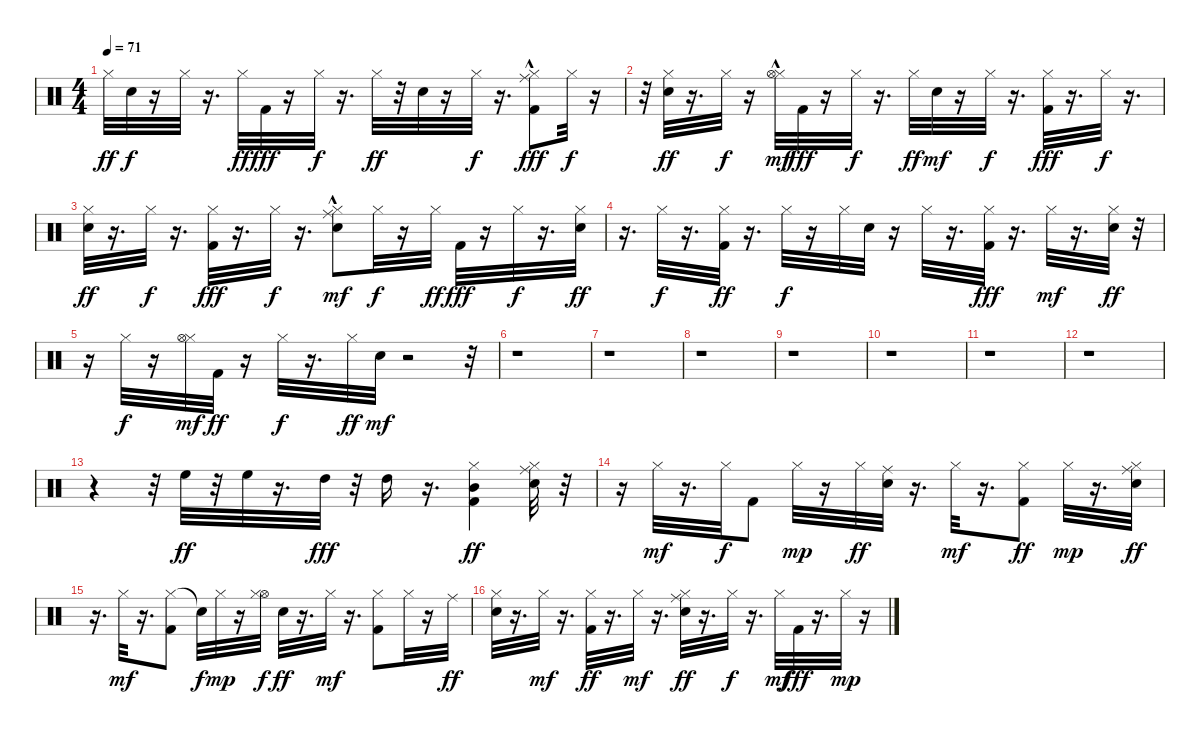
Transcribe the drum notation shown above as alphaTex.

\track "" {instrument percussion}
\staff {score}
\articulation defaults
\ts (4 4)
\tempo 71
\clef neutral
\ks c "Hi-Hat (closed)".32{dy ff} "Snare (hit) 2".32{dy f}
r.16 "Hi-Hat (closed)".32 r.16{d} "Hi-Hat (closed)".32{dy ff} "Kick (hit) 2".32{dy fff} r.16 "Hi-Hat (closed)".32{dy f} r.16{d} "Hi-Hat (closed)".32{dy ff} r.32 "Snare (hit) 2".32 r.16 "Hi-Hat (closed)".32{dy f} r.16{d} ("Hi-Hat (closed)" "Ride (middle)"{hac} "Kick (hit) 2").8{dy fff} "Hi-Hat (closed)".32{dy f} r.16 |
r.32 ("Hi-Hat (closed)" "Snare (hit) 2").32{dy ff} r.16{d} "Hi-Hat (closed)".32{dy f} r.16 ("Hi-Hat (closed)" "Hi-Hat (open)"{hac}).32{dy mf} "Kick (hit) 2".32{dy fff} r.16 "Hi-Hat (closed)".32{dy f} r.16{d} "Hi-Hat (closed)".32{dy ff} "Snare (hit) 2".32{dy mf} r.16 "Hi-Hat (closed)".32{dy f} r.16{d} ("Hi-Hat (closed)" "Kick (hit) 2").32{dy fff} r.16{d} "Hi-Hat (closed)".32{dy f} r.16{d} |
("Hi-Hat (closed)" "Snare (hit) 2").32{dy ff} r.16{d} "Hi-Hat (closed)".32{dy f} r.16{d} ("Hi-Hat (closed)" "Kick (hit) 2").32{dy fff} r.16{d} "Hi-Hat (closed)".32{dy f} r.16{d} ("Ride (middle)"{hac} "Hi-Hat (closed)" "Snare (hit) 2").8{dy mf} "Hi-Hat (closed)".32{dy f} r.16 "Hi-Hat (closed)".32{dy ff} "Kick (hit) 2".32{dy fff} r.16 "Hi-Hat (closed)".32{dy f} r.16{d} ("Hi-Hat (closed)" "Snare (hit) 2").32{dy ff} |
r.16{d} "Hi-Hat (closed)".32{dy f} r.16{d} ("Hi-Hat (closed)" "Kick (hit) 2").32{dy ff} r.16{d} "Hi-Hat (closed)".32{dy f} r.16 "Hi-Hat (closed)".32 "Snare (hit) 2".32 r.16 "Hi-Hat (closed)".32 r.16{d} ("Hi-Hat (closed)" "Kick (hit) 2").32{dy fff} r.16{d} "Hi-Hat (closed)".32{dy mf} r.16{d} ("Hi-Hat (closed)" "Snare (hit) 2").32{dy ff} r.32 |
r.16 "Hi-Hat (closed)".32{dy f} r.16 ("Hi-Hat (closed)" "Hi-Hat (open)").32{dy mf} "Kick (hit) 2".32{dy ff} r.16 "Hi-Hat (closed)".32{dy f} r.16{d} "Hi-Hat (closed)".32{dy ff} "Snare (hit) 2".32{dy mf} r.2 r.32 |
r.1 |
r.1 |
r.1 |
r.1 |
r.1 |
r.1 |
r.1 |
r.4 r.32 "High Floor Tom (hit)".32{dy ff} r.32 "High Floor Tom (hit)".32 r.16{d} "High Tom (hit)".32{dy fff} r.32 "High Tom (hit)".16 r.16{d} ("Hi-Hat (closed)" "Mid Tom (hit)" "Kick (hit) 2").4{dy ff} ("Ride (middle)" "Hi-Hat (closed)" "Snare (hit) 2").32 r.32 |
r.16 "Hi-Hat (closed)".32{dy mf} r.16{d} "Hi-Hat (closed)".32{dy f} "Kick (hit) 2".8 "Hi-Hat (closed)".32{dy mp} r.16 "Hi-Hat (closed)".32{dy ff} ("Ride (middle)" "Snare (hit) 2").32 r.16{d} "Hi-Hat (closed)".32{dy mf} r.16{d} ("Hi-Hat (closed)" "Kick (hit) 2").8{dy ff} "Hi-Hat (closed)".32{dy mp} r.16{d} ("Ride (middle)" "Hi-Hat (closed)" "Snare (hit) 2").32{dy ff} |
r.16{d} "Hi-Hat (closed)".32{dy mf} r.16{d} ("Hi-Hat (closed)" "Kick (hit) 2").8 "Snare (hit)"{t}.32{dy f} "Hi-Hat (closed)".32{dy mp} r.16 ("Hi-Hat (open)" "Hi-Hat (closed)").32{dy f} "Snare (hit) 2".32{dy ff} r.16{d} "Hi-Hat (closed)".32{dy mf} r.16{d} ("Kick (hit) 2" "Hi-Hat (closed)").8 "Hi-Hat (closed)".32 r.16 "Ride (middle)".32{dy ff} |
("Hi-Hat (closed)" "Snare (hit) 2").32 r.16{d} "Hi-Hat (closed)".32{dy mf} r.16{d} ("Hi-Hat (closed)" "Kick (hit) 2").32{dy ff} r.16{d} "Hi-Hat (closed)".32{dy mf} r.16{d} ("Ride (middle)" "Hi-Hat (closed)" "Snare (hit) 2").32{dy ff} r.16{d} "Hi-Hat (closed)".32{dy f} r.16{d} "Hi-Hat (closed)".32{dy mf} "Kick (hit) 2".32{dy fff} r.16{d} "Hi-Hat (closed)".32{dy mp} r.16
